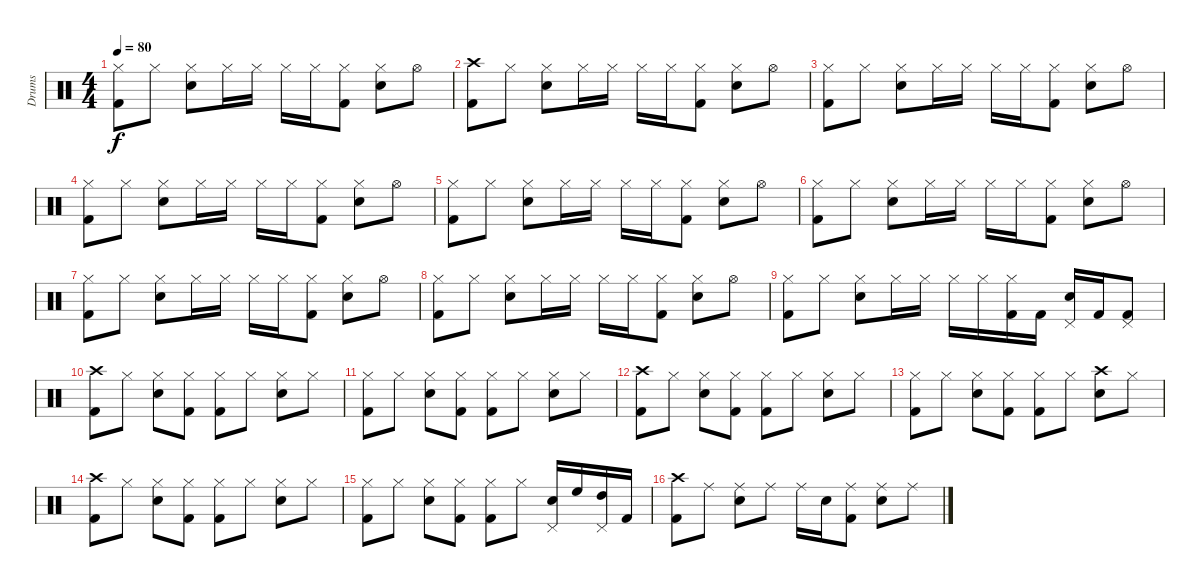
\track ("Drums" "Drums") {instrument percussion}
\staff {score}
\articulation defaults
\ts (4 4)
\tempo 80
\clef neutral
\ks c
("Hi-Hat (closed)" "Kick (hit) 2").8{dy f} "Hi-Hat (closed)".8 ("Hi-Hat (closed)" "Electric Snare (hit)").8 "Hi-Hat (closed)".16 "Hi-Hat (closed)".16 "Hi-Hat (closed)".16 "Hi-Hat (closed)".16 ("Hi-Hat (closed)" "Kick (hit) 2").8 ("Hi-Hat (closed)" "Electric Snare (hit)").8 "Hi-Hat (open)".8 |
("Crash high (hit)" "Kick (hit) 2").8 "Hi-Hat (closed)".8 ("Hi-Hat (closed)" "Electric Snare (hit)").8 "Hi-Hat (closed)".16 "Hi-Hat (closed)".16 "Hi-Hat (closed)".16 "Hi-Hat (closed)".16 ("Hi-Hat (closed)" "Kick (hit) 2").8 ("Hi-Hat (closed)" "Electric Snare (hit)").8 "Hi-Hat (open)".8 |
("Hi-Hat (closed)" "Kick (hit) 2").8 "Hi-Hat (closed)".8 ("Hi-Hat (closed)" "Electric Snare (hit)").8 "Hi-Hat (closed)".16 "Hi-Hat (closed)".16 "Hi-Hat (closed)".16 "Hi-Hat (closed)".16 ("Hi-Hat (closed)" "Kick (hit) 2").8 ("Hi-Hat (closed)" "Electric Snare (hit)").8 "Hi-Hat (open)".8 |
("Hi-Hat (closed)" "Kick (hit) 2").8 "Hi-Hat (closed)".8 ("Hi-Hat (closed)" "Electric Snare (hit)").8 "Hi-Hat (closed)".16 "Hi-Hat (closed)".16 "Hi-Hat (closed)".16 "Hi-Hat (closed)".16 ("Hi-Hat (closed)" "Kick (hit) 2").8 ("Hi-Hat (closed)" "Electric Snare (hit)").8 "Hi-Hat (open)".8 |
("Hi-Hat (closed)" "Kick (hit) 2").8 "Hi-Hat (closed)".8 ("Hi-Hat (closed)" "Electric Snare (hit)").8 "Hi-Hat (closed)".16 "Hi-Hat (closed)".16 "Hi-Hat (closed)".16 "Hi-Hat (closed)".16 ("Hi-Hat (closed)" "Kick (hit) 2").8 ("Hi-Hat (closed)" "Electric Snare (hit)").8 "Hi-Hat (open)".8 |
("Hi-Hat (closed)" "Kick (hit) 2").8 "Hi-Hat (closed)".8 ("Hi-Hat (closed)" "Electric Snare (hit)").8 "Hi-Hat (closed)".16 "Hi-Hat (closed)".16 "Hi-Hat (closed)".16 "Hi-Hat (closed)".16 ("Hi-Hat (closed)" "Kick (hit) 2").8 ("Hi-Hat (closed)" "Electric Snare (hit)").8 "Hi-Hat (open)".8 |
("Hi-Hat (closed)" "Kick (hit) 2").8 "Hi-Hat (closed)".8 ("Hi-Hat (closed)" "Electric Snare (hit)").8 "Hi-Hat (closed)".16 "Hi-Hat (closed)".16 "Hi-Hat (closed)".16 "Hi-Hat (closed)".16 ("Hi-Hat (closed)" "Kick (hit) 2").8 ("Hi-Hat (closed)" "Electric Snare (hit)").8 "Hi-Hat (open)".8 |
("Hi-Hat (closed)" "Kick (hit) 2").8 "Hi-Hat (closed)".8 ("Hi-Hat (closed)" "Electric Snare (hit)").8 "Hi-Hat (closed)".16 "Hi-Hat (closed)".16 "Hi-Hat (closed)".16 "Hi-Hat (closed)".16 ("Hi-Hat (closed)" "Kick (hit) 2").8 ("Hi-Hat (closed)" "Electric Snare (hit)").8 "Hi-Hat (open)".8 |
("Hi-Hat (closed)" "Kick (hit) 2").8 "Hi-Hat (closed)".8 ("Hi-Hat (closed)" "Electric Snare (hit)").8 "Hi-Hat (closed)".16 "Hi-Hat (closed)".16 "Hi-Hat (closed)".16 "Hi-Hat (closed)".16 ("Hi-Hat (closed)" "Kick (hit) 2").16 "Kick (hit) 2".16 ("Pedal Hi-Hat (hit)" "Electric Snare (hit)").16 "Kick (hit) 2".16 ("Pedal Hi-Hat (hit)" "Kick (hit) 2").8 |
("Crash high (hit)" "Kick (hit) 2").8 "Hi-Hat (closed)".8 ("Hi-Hat (closed)" "Electric Snare (hit)").8 ("Hi-Hat (closed)" "Kick (hit) 2").8 ("Hi-Hat (closed)" "Kick (hit) 2").8 "Hi-Hat (closed)".8 ("Hi-Hat (closed)" "Electric Snare (hit)").8 "Hi-Hat (closed)".8 |
("Hi-Hat (closed)" "Kick (hit) 2").8 "Hi-Hat (closed)".8 ("Hi-Hat (closed)" "Electric Snare (hit)").8 ("Hi-Hat (closed)" "Kick (hit) 2").8 ("Hi-Hat (closed)" "Kick (hit) 2").8 "Hi-Hat (closed)".8 ("Hi-Hat (closed)" "Electric Snare (hit)").8 "Hi-Hat (closed)".8 |
("Crash high (hit)" "Kick (hit) 2").8 "Hi-Hat (closed)".8 ("Hi-Hat (closed)" "Electric Snare (hit)").8 ("Hi-Hat (closed)" "Kick (hit) 2").8 ("Hi-Hat (closed)" "Kick (hit) 2").8 "Hi-Hat (closed)".8 ("Hi-Hat (closed)" "Electric Snare (hit)").8 "Hi-Hat (closed)".8 |
("Hi-Hat (closed)" "Kick (hit) 2").8 "Hi-Hat (closed)".8 ("Hi-Hat (closed)" "Electric Snare (hit)").8 ("Hi-Hat (closed)" "Kick (hit) 2").8 ("Hi-Hat (closed)" "Kick (hit) 2").8 "Hi-Hat (closed)".8 ("Crash high (hit)" "Electric Snare (hit)").8 "Hi-Hat (closed)".8 |
("Crash high (hit)" "Kick (hit) 2").8 "Hi-Hat (closed)".8 ("Hi-Hat (closed)" "Electric Snare (hit)").8 ("Hi-Hat (closed)" "Kick (hit) 2").8 ("Hi-Hat (closed)" "Kick (hit) 2").8 "Hi-Hat (closed)".8 ("Hi-Hat (closed)" "Electric Snare (hit)").8 "Hi-Hat (closed)".8 |
("Hi-Hat (closed)" "Kick (hit) 2").8 "Hi-Hat (closed)".8 ("Hi-Hat (closed)" "Electric Snare (hit)").8 ("Hi-Hat (closed)" "Kick (hit) 2").8 ("Hi-Hat (closed)" "Kick (hit) 2").8 "Hi-Hat (closed)".8 ("Pedal Hi-Hat (hit)" "Electric Snare (hit)").16 "High Floor Tom (hit)".16 ("Pedal Hi-Hat (hit)" "High Tom (hit)").16 "Kick (hit) 2".16 |
("Crash high (hit)" "Kick (hit) 2").8 "Ride (middle)".8 ("Ride (middle)" "Electric Snare (hit)").8 "Ride (middle)".8 "Ride (middle)".16 "Electric Snare (hit)".16 ("Ride (middle)" "Kick (hit) 2").8 ("Ride (middle)" "Electric Snare (hit)").8 "Ride (middle)".8
